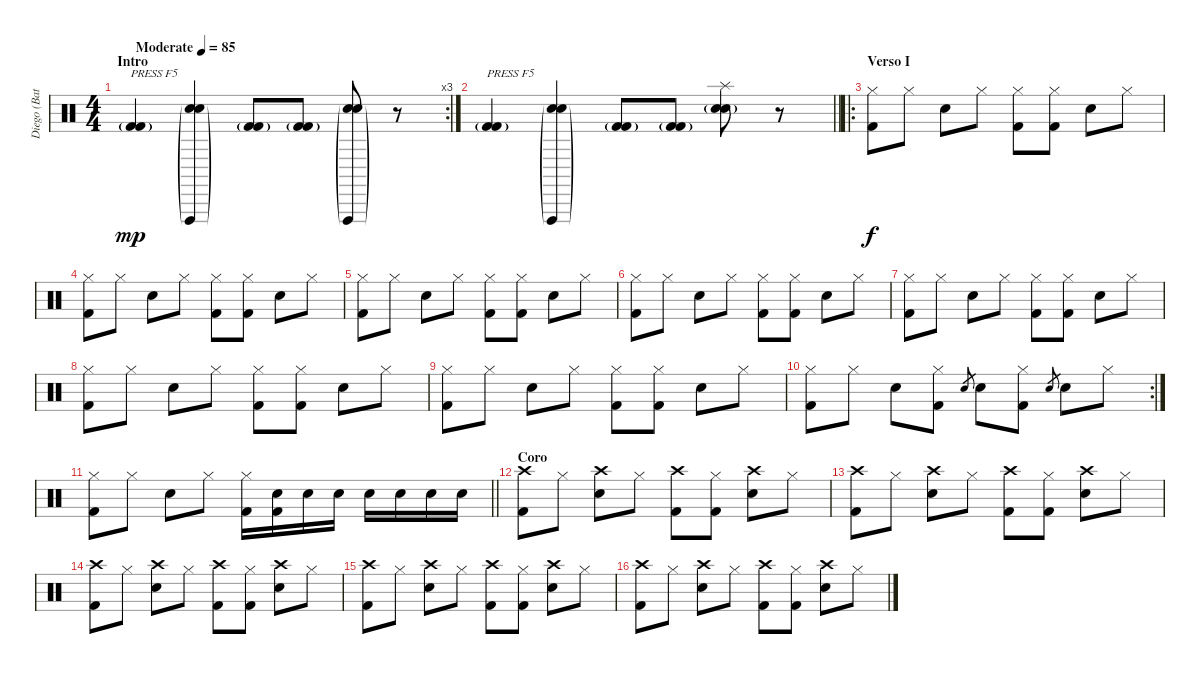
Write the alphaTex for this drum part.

\track ("Diego (Bateria)" "Diego (Bat") {instrument percussion}
\staff {score}
\articulation defaults
\rc 3
\ts (4 4)
\section ("" "Intro")
\tempo (85 "Moderate")
\clef neutral
\ks c
("Kick (hit) 2" "Kick (hit) 2"{g}).4{txt "PRESS F5" dy mp} ("Vibraslap (hit)"{g} "Snare (hit) 2"{g} "Electric Snare (hit)"{g}).4 ("Kick (hit) 2" "Kick (hit) 2"{g}).8 ("Kick (hit) 2" "Kick (hit) 2"{g}).8 ("Vibraslap (hit)"{g} "Snare (hit) 2"{g} "Electric Snare (hit)"{g}).8 r.8 |
\barLineRight lightlight
("Kick (hit) 2" "Kick (hit) 2"{g}).4{txt "PRESS F5"} ("Vibraslap (hit)"{g} "Snare (hit) 2"{g} "Electric Snare (hit)"{g}).4 ("Kick (hit) 2" "Kick (hit) 2"{g}).8 ("Kick (hit) 2" "Kick (hit) 2"{g}).8 ("Splash (hit)" "Snare (hit) 2"{g} "Electric Snare (hit)"{g}).8 r.8 |
\ro
\section ("" "Verso I")
("Hi-Hat (closed)" "Kick (hit) 2").8{dy f} "Hi-Hat (closed)".8 "Electric Snare (hit)".8 "Hi-Hat (closed)".8 ("Hi-Hat (closed)" "Kick (hit) 2").8 ("Hi-Hat (closed)" "Kick (hit) 2").8 "Electric Snare (hit)".8 "Hi-Hat (closed)".8 |
("Hi-Hat (closed)" "Kick (hit) 2").8 "Hi-Hat (closed)".8 "Electric Snare (hit)".8 "Hi-Hat (closed)".8 ("Hi-Hat (closed)" "Kick (hit) 2").8 ("Hi-Hat (closed)" "Kick (hit) 2").8 "Electric Snare (hit)".8 "Hi-Hat (closed)".8 |
("Hi-Hat (closed)" "Kick (hit) 2").8 "Hi-Hat (closed)".8 "Electric Snare (hit)".8 "Hi-Hat (closed)".8 ("Hi-Hat (closed)" "Kick (hit) 2").8 ("Hi-Hat (closed)" "Kick (hit) 2").8 "Electric Snare (hit)".8 "Hi-Hat (closed)".8 |
("Hi-Hat (closed)" "Kick (hit) 2").8 "Hi-Hat (closed)".8 "Electric Snare (hit)".8 "Hi-Hat (closed)".8 ("Hi-Hat (closed)" "Kick (hit) 2").8 ("Hi-Hat (closed)" "Kick (hit) 2").8 "Electric Snare (hit)".8 "Hi-Hat (closed)".8 |
("Hi-Hat (closed)" "Kick (hit) 2").8 "Hi-Hat (closed)".8 "Electric Snare (hit)".8 "Hi-Hat (closed)".8 ("Hi-Hat (closed)" "Kick (hit) 2").8 ("Hi-Hat (closed)" "Kick (hit) 2").8 "Electric Snare (hit)".8 "Hi-Hat (closed)".8 |
("Hi-Hat (closed)" "Kick (hit) 2").8 "Hi-Hat (closed)".8 "Electric Snare (hit)".8 "Hi-Hat (closed)".8 ("Hi-Hat (closed)" "Kick (hit) 2").8 ("Hi-Hat (closed)" "Kick (hit) 2").8 "Electric Snare (hit)".8 "Hi-Hat (closed)".8 |
("Hi-Hat (closed)" "Kick (hit) 2").8 "Hi-Hat (closed)".8 "Electric Snare (hit)".8 "Hi-Hat (closed)".8 ("Hi-Hat (closed)" "Kick (hit) 2").8 ("Hi-Hat (closed)" "Kick (hit) 2").8 "Electric Snare (hit)".8 "Hi-Hat (closed)".8 |
\rc 2
("Hi-Hat (closed)" "Kick (hit) 2").8 "Hi-Hat (closed)".8 "Electric Snare (hit)".8 ("Hi-Hat (closed)" "Kick (hit) 2").8 "Electric Snare (hit)".8{gr} "Electric Snare (hit)".8 ("Hi-Hat (closed)" "Kick (hit) 2").8 "Electric Snare (hit)".8{gr} "Electric Snare (hit)".8 "Hi-Hat (closed)".8 |
\barLineRight lightlight
("Hi-Hat (closed)" "Kick (hit) 2").8 "Hi-Hat (closed)".8 "Electric Snare (hit)".8 "Hi-Hat (closed)".8 ("Hi-Hat (closed)" "Kick (hit) 2").16 ("Electric Snare (hit)" "Kick (hit) 2").16 "Electric Snare (hit)".16 "Electric Snare (hit)".16 "Electric Snare (hit)".16 "Electric Snare (hit)".16 "Electric Snare (hit)".16 "Electric Snare (hit)".16 |
\section ("" "Coro")
("Crash high (hit)" "Kick (hit) 2").8 "Hi-Hat (closed)".8 ("Crash high (hit)" "Electric Snare (hit)").8 "Hi-Hat (closed)".8 ("Crash high (hit)" "Kick (hit) 2").8 ("Hi-Hat (closed)" "Kick (hit) 2").8 ("Crash high (hit)" "Electric Snare (hit)").8 "Hi-Hat (closed)".8 |
("Crash high (hit)" "Kick (hit) 2").8 "Hi-Hat (closed)".8 ("Crash high (hit)" "Electric Snare (hit)").8 "Hi-Hat (closed)".8 ("Crash high (hit)" "Kick (hit) 2").8 ("Hi-Hat (closed)" "Kick (hit) 2").8 ("Crash high (hit)" "Electric Snare (hit)").8 "Hi-Hat (closed)".8 |
("Crash high (hit)" "Kick (hit) 2").8 "Hi-Hat (closed)".8 ("Crash high (hit)" "Electric Snare (hit)").8 "Hi-Hat (closed)".8 ("Crash high (hit)" "Kick (hit) 2").8 ("Hi-Hat (closed)" "Kick (hit) 2").8 ("Crash high (hit)" "Electric Snare (hit)").8 "Hi-Hat (closed)".8 |
("Crash high (hit)" "Kick (hit) 2").8 "Hi-Hat (closed)".8 ("Crash high (hit)" "Electric Snare (hit)").8 "Hi-Hat (closed)".8 ("Crash high (hit)" "Kick (hit) 2").8 ("Hi-Hat (closed)" "Kick (hit) 2").8 ("Crash high (hit)" "Electric Snare (hit)").8 "Hi-Hat (closed)".8 |
("Crash high (hit)" "Kick (hit) 2").8 "Hi-Hat (closed)".8 ("Crash high (hit)" "Electric Snare (hit)").8 "Hi-Hat (closed)".8 ("Crash high (hit)" "Kick (hit) 2").8 ("Hi-Hat (closed)" "Kick (hit) 2").8 ("Crash high (hit)" "Electric Snare (hit)").8 "Hi-Hat (closed)".8
